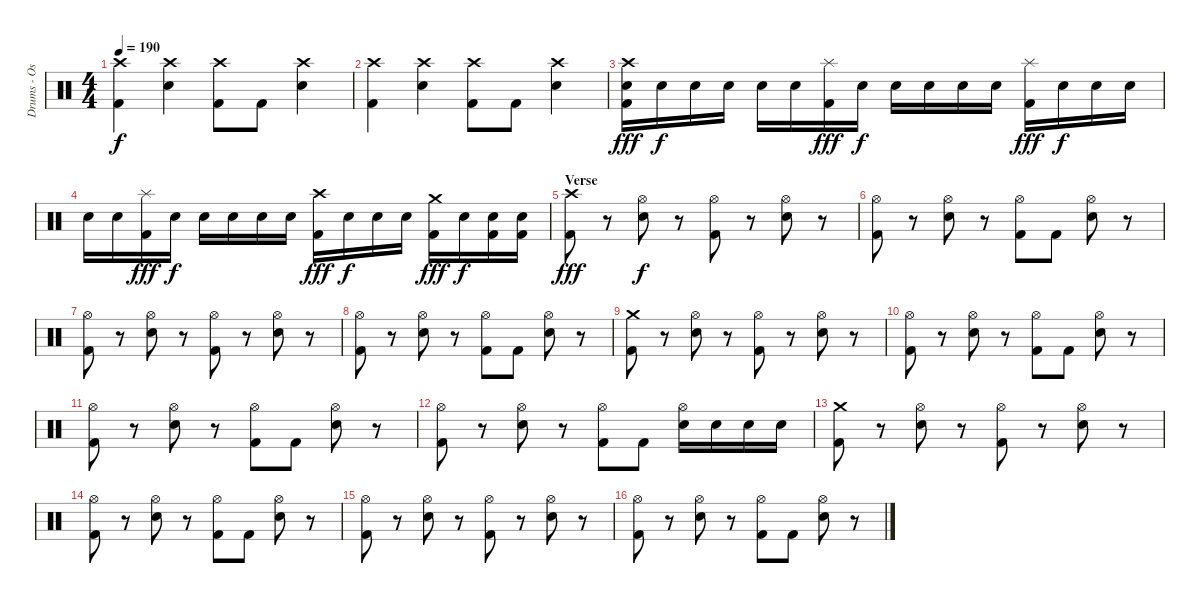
\track ("Drums - Oskar Karlsson" "Drums - Os") {instrument percussion}
\staff {score}
\articulation defaults
\ts (4 4)
\tempo 190
\clef neutral
\ks c
("Crash high (hit)" "Kick (hit) 2").4{dy f} ("Crash high (hit)" "Electric Snare (hit)").4 ("Crash high (hit)" "Kick (hit) 2").8 "Kick (hit) 2".8 ("Crash high (hit)" "Electric Snare (hit)").4 |
("Crash high (hit)" "Kick (hit) 2").4 ("Crash high (hit)" "Electric Snare (hit)").4 ("Crash high (hit)" "Kick (hit) 2").8 "Kick (hit) 2".8 ("Crash high (hit)" "Electric Snare (hit)").4 |
("Crash high (hit)" "Electric Snare (hit)" "Kick (hit) 2").16{dy fff} "Electric Snare (hit)".16{dy f} "Electric Snare (hit)".16 "Electric Snare (hit)".16 "Electric Snare (hit)".16 "Electric Snare (hit)".16 ("Splash (hit)" "Kick (hit) 2").16{dy fff} "Electric Snare (hit)".16{dy f} "Electric Snare (hit)".16 "Electric Snare (hit)".16 "Electric Snare (hit)".16 "Electric Snare (hit)".16 ("Splash (hit)" "Kick (hit) 2").16{dy fff} "Electric Snare (hit)".16{dy f} "Electric Snare (hit)".16 "Electric Snare (hit)".16 |
"Electric Snare (hit)".16 "Electric Snare (hit)".16 ("Splash (hit)" "Kick (hit) 2").16{dy fff} "Electric Snare (hit)".16{dy f} "Electric Snare (hit)".16 "Electric Snare (hit)".16 "Electric Snare (hit)".16 "Electric Snare (hit)".16 ("Crash high (hit)" "Kick (hit) 2").16{dy fff} "Electric Snare (hit)".16{dy f} "Electric Snare (hit)".16 "Electric Snare (hit)".16 ("Crash medium (hit)" "Kick (hit) 2").16{dy fff} "Electric Snare (hit)".16{dy f} ("Electric Snare (hit)" "Kick (hit) 2").16 ("Electric Snare (hit)" "Kick (hit) 2").16 |
\section ("" "Verse")
("Crash high (hit)" "Kick (hit) 2").8{dy fff} r.8 ("Hi-Hat (open)" "Electric Snare (hit)").8{dy f} r.8 ("Hi-Hat (open)" "Kick (hit) 2").8 r.8 ("Hi-Hat (open)" "Electric Snare (hit)").8 r.8 |
("Hi-Hat (open)" "Kick (hit) 2").8 r.8 ("Hi-Hat (open)" "Electric Snare (hit)").8 r.8 ("Hi-Hat (open)" "Kick (hit) 2").8 "Kick (hit) 2".8 ("Hi-Hat (open)" "Electric Snare (hit)").8 r.8 |
("Hi-Hat (open)" "Kick (hit) 2").8 r.8 ("Hi-Hat (open)" "Electric Snare (hit)").8 r.8 ("Hi-Hat (open)" "Kick (hit) 2").8 r.8 ("Hi-Hat (open)" "Electric Snare (hit)").8 r.8 |
("Hi-Hat (open)" "Kick (hit) 2").8 r.8 ("Hi-Hat (open)" "Electric Snare (hit)").8 r.8 ("Hi-Hat (open)" "Kick (hit) 2").8 "Kick (hit) 2".8 ("Hi-Hat (open)" "Electric Snare (hit)").8 r.8 |
("Crash medium (hit)" "Kick (hit) 2").8 r.8 ("Hi-Hat (open)" "Electric Snare (hit)").8 r.8 ("Hi-Hat (open)" "Kick (hit) 2").8 r.8 ("Hi-Hat (open)" "Electric Snare (hit)").8 r.8 |
("Hi-Hat (open)" "Kick (hit) 2").8 r.8 ("Hi-Hat (open)" "Electric Snare (hit)").8 r.8 ("Hi-Hat (open)" "Kick (hit) 2").8 "Kick (hit) 2".8 ("Hi-Hat (open)" "Electric Snare (hit)").8 r.8 |
("Hi-Hat (open)" "Kick (hit) 2").8 r.8 ("Hi-Hat (open)" "Electric Snare (hit)").8 r.8 ("Hi-Hat (open)" "Kick (hit) 2").8 "Kick (hit) 2".8 ("Hi-Hat (open)" "Electric Snare (hit)").8 r.8 |
("Hi-Hat (open)" "Kick (hit) 2").8 r.8 ("Hi-Hat (open)" "Electric Snare (hit)").8 r.8 ("Hi-Hat (open)" "Kick (hit) 2").8 "Kick (hit) 2".8 ("Hi-Hat (open)" "Electric Snare (hit)").16 "Electric Snare (hit)".16 "Electric Snare (hit)".16 "Electric Snare (hit)".16 |
("Crash medium (hit)" "Kick (hit) 2").8 r.8 ("Hi-Hat (open)" "Electric Snare (hit)").8 r.8 ("Hi-Hat (open)" "Kick (hit) 2").8 r.8 ("Hi-Hat (open)" "Electric Snare (hit)").8 r.8 |
("Hi-Hat (open)" "Kick (hit) 2").8 r.8 ("Hi-Hat (open)" "Electric Snare (hit)").8 r.8 ("Hi-Hat (open)" "Kick (hit) 2").8 "Kick (hit) 2".8 ("Hi-Hat (open)" "Electric Snare (hit)").8 r.8 |
("Hi-Hat (open)" "Kick (hit) 2").8 r.8 ("Hi-Hat (open)" "Electric Snare (hit)").8 r.8 ("Hi-Hat (open)" "Kick (hit) 2").8 r.8 ("Hi-Hat (open)" "Electric Snare (hit)").8 r.8 |
("Hi-Hat (open)" "Kick (hit) 2").8 r.8 ("Hi-Hat (open)" "Electric Snare (hit)").8 r.8 ("Hi-Hat (open)" "Kick (hit) 2").8 "Kick (hit) 2".8 ("Hi-Hat (open)" "Electric Snare (hit)").8 r.8
